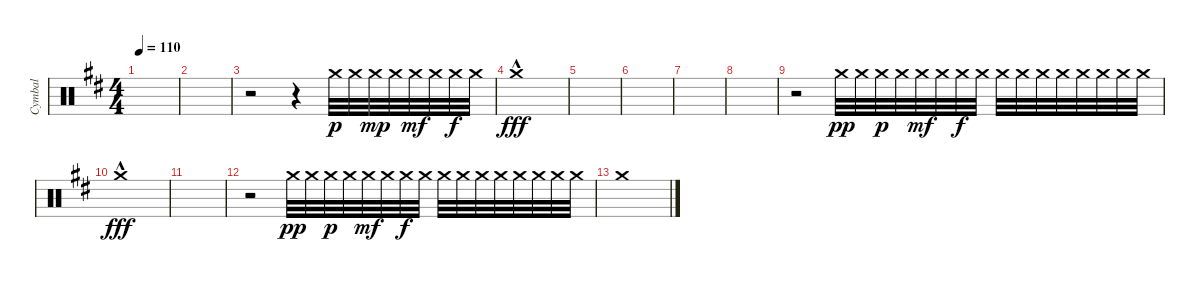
\track ("Cymbal" "Cymbal") {instrument percussion}
\staff {score}
\articulation defaults
\ts (4 4)
\tempo 110
\clef neutral
\ks d
|
|
r.2 r.4 "Crash medium (hit)".32{dy p} "Crash medium (hit)".32 "Crash medium (hit)".32{dy mp} "Crash medium (hit)".32 "Crash medium (hit)".32{dy mf} "Crash medium (hit)".32 "Crash medium (hit)".32{dy f} "Crash medium (hit)".32 |
"Crash medium (hit)"{hac}.1{dy fff} |
|
|
|
|
r.2 "Crash medium (hit)".32{dy pp} "Crash medium (hit)".32 "Crash medium (hit)".32{dy p} "Crash medium (hit)".32 "Crash medium (hit)".32{dy mf} "Crash medium (hit)".32 "Crash medium (hit)".32{dy f} "Crash medium (hit)".32 "Crash medium (hit)".32 "Crash medium (hit)".32 "Crash medium (hit)".32 "Crash medium (hit)".32 "Crash medium (hit)".32 "Crash medium (hit)".32 "Crash medium (hit)".32 "Crash medium (hit)".32 |
"Crash medium (hit)"{hac}.1{dy fff} |
|
r.2 "Crash medium (hit)".32{dy pp} "Crash medium (hit)".32 "Crash medium (hit)".32{dy p} "Crash medium (hit)".32 "Crash medium (hit)".32{dy mf} "Crash medium (hit)".32 "Crash medium (hit)".32{dy f} "Crash medium (hit)".32 "Crash medium (hit)".32 "Crash medium (hit)".32 "Crash medium (hit)".32 "Crash medium (hit)".32 "Crash medium (hit)".32 "Crash medium (hit)".32 "Crash medium (hit)".32 "Crash medium (hit)".32 |
"Crash medium (hit)".1
